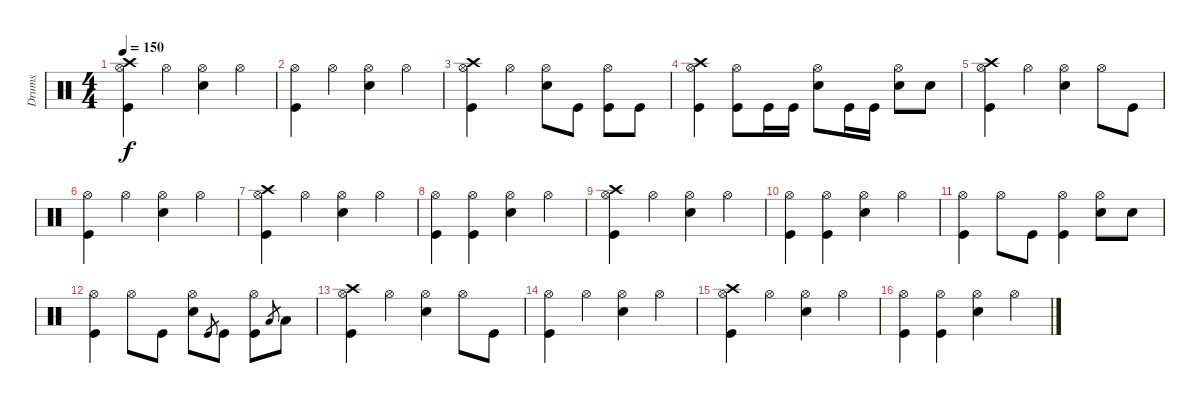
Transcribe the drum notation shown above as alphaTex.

\track ("Drums" "Drums") {instrument percussion}
\staff {score}
\articulation defaults
\ts (4 4)
\tempo 150
\clef neutral
\ks c
("Crash high (hit)" "Hi-Hat (open)" "Kick (hit)").4{dy f} "Hi-Hat (open)".4 ("Hi-Hat (open)" "Electric Snare (hit)").4 "Hi-Hat (open)".4 |
("Hi-Hat (open)" "Kick (hit)").4 "Hi-Hat (open)".4 ("Hi-Hat (open)" "Electric Snare (hit)").4 "Hi-Hat (open)".4 |
("Crash high (hit)" "Hi-Hat (open)" "Kick (hit)").4 "Hi-Hat (open)".4 ("Hi-Hat (open)" "Electric Snare (hit)").8 "Kick (hit)".8 ("Hi-Hat (open)" "Kick (hit)").8 "Kick (hit)".8 |
("Crash high (hit)" "Hi-Hat (open)" "Kick (hit)").4 ("Hi-Hat (open)" "Kick (hit)").8 "Kick (hit)".16 "Kick (hit)".16 ("Hi-Hat (open)" "Electric Snare (hit)").8 "Kick (hit)".16 "Kick (hit)".16 ("Hi-Hat (open)" "Electric Snare (hit)").8 "Electric Snare (hit)".8 |
("Crash high (hit)" "Hi-Hat (open)" "Kick (hit)").4 "Hi-Hat (open)".4 ("Hi-Hat (open)" "Electric Snare (hit)").4 "Hi-Hat (open)".8 "Kick (hit)".8 |
("Hi-Hat (open)" "Kick (hit)").4 "Hi-Hat (open)".4 ("Hi-Hat (open)" "Electric Snare (hit)").4 "Hi-Hat (open)".4 |
("Crash high (hit)" "Hi-Hat (open)" "Kick (hit)").4 "Hi-Hat (open)".4 ("Hi-Hat (open)" "Electric Snare (hit)").4 "Hi-Hat (open)".4 |
("Hi-Hat (open)" "Kick (hit)").4 ("Hi-Hat (open)" "Kick (hit)").4 ("Hi-Hat (open)" "Electric Snare (hit)").4 "Hi-Hat (open)".4 |
("Crash high (hit)" "Hi-Hat (open)" "Kick (hit)").4 "Hi-Hat (open)".4 ("Hi-Hat (open)" "Electric Snare (hit)").4 "Hi-Hat (open)".4 |
("Hi-Hat (open)" "Kick (hit)").4 ("Hi-Hat (open)" "Kick (hit)").4 ("Hi-Hat (open)" "Electric Snare (hit)").4 "Hi-Hat (open)".4 |
("Hi-Hat (open)" "Kick (hit)").4 "Hi-Hat (open)".8 "Kick (hit)".8 ("Hi-Hat (open)" "Kick (hit)").4 ("Hi-Hat (open)" "Electric Snare (hit)").8 "Electric Snare (hit)".8 |
("Hi-Hat (open)" "Kick (hit)").4 "Hi-Hat (open)".8 "Kick (hit)".8 ("Hi-Hat (open)" "Electric Snare (hit)").8 "Kick (hit)".8{gr} "Kick (hit)".8 ("Hi-Hat (open)" "Kick (hit)").8 "Low Tom (hit)".8{gr} "Low Tom (hit)".8 |
("Crash high (hit)" "Hi-Hat (open)" "Kick (hit)").4 "Hi-Hat (open)".4 ("Hi-Hat (open)" "Electric Snare (hit)").4 "Hi-Hat (open)".8 "Kick (hit)".8 |
("Hi-Hat (open)" "Kick (hit)").4 "Hi-Hat (open)".4 ("Hi-Hat (open)" "Electric Snare (hit)").4 "Hi-Hat (open)".4 |
("Crash high (hit)" "Hi-Hat (open)" "Kick (hit)").4 "Hi-Hat (open)".4 ("Hi-Hat (open)" "Electric Snare (hit)").4 "Hi-Hat (open)".4 |
("Hi-Hat (open)" "Kick (hit)").4 ("Hi-Hat (open)" "Kick (hit)").4 ("Hi-Hat (open)" "Electric Snare (hit)").4 "Hi-Hat (open)".4
